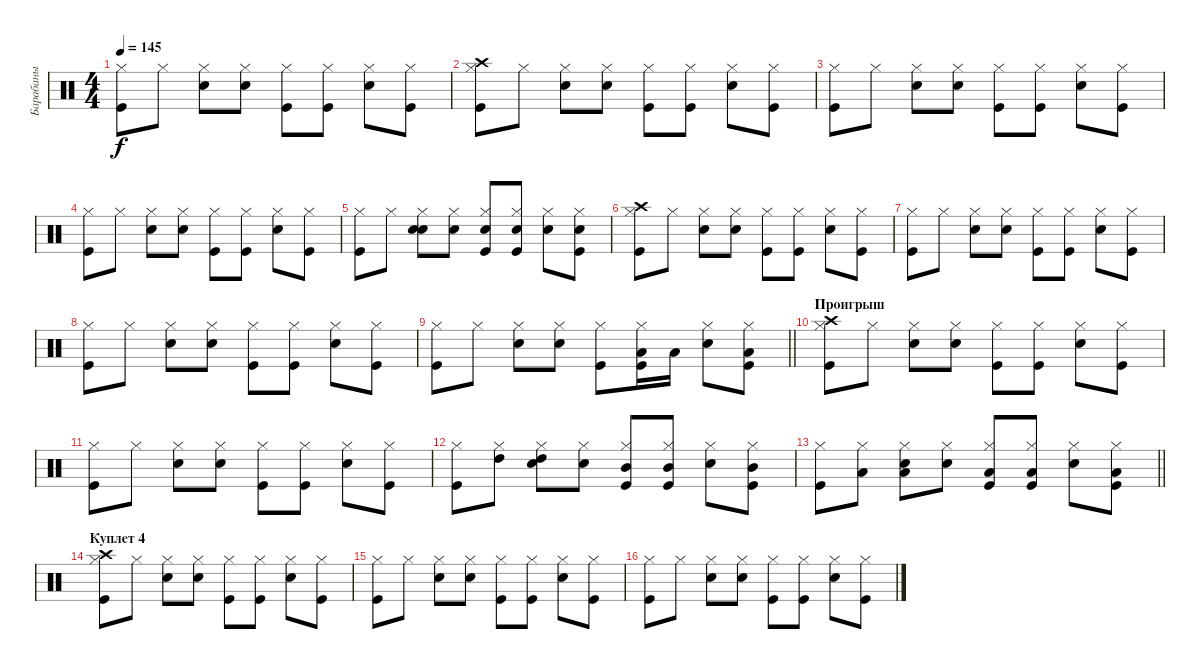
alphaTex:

\track ("Барабаны" "Барабаны") {instrument percussion}
\staff {score}
\articulation defaults
\ts (4 4)
\tempo 145
\clef neutral
\ks c
("Kick (hit)" "Hi-Hat (closed)").8{dy f} "Hi-Hat (closed)".8 ("Snare (hit) 2" "Hi-Hat (closed)").8 ("Snare (hit) 2" "Hi-Hat (closed)").8 ("Kick (hit)" "Hi-Hat (closed)").8 ("Kick (hit)" "Hi-Hat (closed)").8 ("Snare (hit) 2" "Hi-Hat (closed)").8 ("Kick (hit)" "Hi-Hat (closed)").8 |
("Kick (hit)" "Hi-Hat (closed)" "Crash high (hit)").8 "Hi-Hat (closed)".8 ("Snare (hit) 2" "Hi-Hat (closed)").8 ("Snare (hit) 2" "Hi-Hat (closed)").8 ("Kick (hit)" "Hi-Hat (closed)").8 ("Kick (hit)" "Hi-Hat (closed)").8 ("Snare (hit) 2" "Hi-Hat (closed)").8 ("Kick (hit)" "Hi-Hat (closed)").8 |
("Kick (hit)" "Hi-Hat (closed)").8 "Hi-Hat (closed)".8 ("Snare (hit) 2" "Hi-Hat (closed)").8 ("Snare (hit) 2" "Hi-Hat (closed)").8 ("Kick (hit)" "Hi-Hat (closed)").8 ("Kick (hit)" "Hi-Hat (closed)").8 ("Snare (hit) 2" "Hi-Hat (closed)").8 ("Kick (hit)" "Hi-Hat (closed)").8 |
("Kick (hit)" "Hi-Hat (closed)").8 "Hi-Hat (closed)".8 ("Snare (hit) 2" "Hi-Hat (closed)").8 ("Snare (hit) 2" "Hi-Hat (closed)").8 ("Kick (hit)" "Hi-Hat (closed)").8 ("Kick (hit)" "Hi-Hat (closed)").8 ("Snare (hit) 2" "Hi-Hat (closed)").8 ("Kick (hit)" "Hi-Hat (closed)").8 |
("Kick (hit)" "Hi-Hat (closed)").8 "Hi-Hat (closed)".8 ("Snare (hit) 2" "Hi-Hat (closed)" "Hand Clap (hit)").8 ("Snare (hit) 2" "Hi-Hat (closed)").8 ("Kick (hit)" "Hi-Hat (closed)" "Hand Clap (hit)").8 ("Kick (hit)" "Hi-Hat (closed)" "Hand Clap (hit)").8 ("Snare (hit) 2" "Hi-Hat (closed)").8 ("Kick (hit)" "Hi-Hat (closed)" "Hand Clap (hit)").8 |
("Kick (hit)" "Hi-Hat (closed)" "Crash high (hit)").8 "Hi-Hat (closed)".8 ("Snare (hit) 2" "Hi-Hat (closed)").8 ("Snare (hit) 2" "Hi-Hat (closed)").8 ("Kick (hit)" "Hi-Hat (closed)").8 ("Kick (hit)" "Hi-Hat (closed)").8 ("Snare (hit) 2" "Hi-Hat (closed)").8 ("Kick (hit)" "Hi-Hat (closed)").8 |
("Kick (hit)" "Hi-Hat (closed)").8 "Hi-Hat (closed)".8 ("Snare (hit) 2" "Hi-Hat (closed)").8 ("Snare (hit) 2" "Hi-Hat (closed)").8 ("Kick (hit)" "Hi-Hat (closed)").8 ("Kick (hit)" "Hi-Hat (closed)").8 ("Snare (hit) 2" "Hi-Hat (closed)").8 ("Kick (hit)" "Hi-Hat (closed)").8 |
("Kick (hit)" "Hi-Hat (closed)").8 "Hi-Hat (closed)".8 ("Snare (hit) 2" "Hi-Hat (closed)").8 ("Snare (hit) 2" "Hi-Hat (closed)").8 ("Kick (hit)" "Hi-Hat (closed)").8 ("Kick (hit)" "Hi-Hat (closed)").8 ("Snare (hit) 2" "Hi-Hat (closed)").8 ("Kick (hit)" "Hi-Hat (closed)").8 |
\barLineRight lightlight
("Kick (hit)" "Hi-Hat (closed)").8 "Hi-Hat (closed)".8 ("Snare (hit) 2" "Hi-Hat (closed)").8 ("Snare (hit) 2" "Hi-Hat (closed)").8 ("Kick (hit)" "Hi-Hat (closed)").8 ("Kick (hit)" "Hi-Hat (closed)" "Low Tom (hit)").16 "Low Floor Tom (hit)".16 ("Snare (hit) 2" "Hi-Hat (closed)").8 ("Kick (hit)" "Hi-Hat (closed)" "Low Floor Tom (hit)").8 |
\section ("" "Проигрыш")
("Kick (hit)" "Hi-Hat (closed)" "Crash high (hit)").8 "Hi-Hat (closed)".8 ("Snare (hit) 2" "Hi-Hat (closed)").8 ("Snare (hit) 2" "Hi-Hat (closed)").8 ("Kick (hit)" "Hi-Hat (closed)").8 ("Kick (hit)" "Hi-Hat (closed)").8 ("Snare (hit) 2" "Hi-Hat (closed)").8 ("Kick (hit)" "Hi-Hat (closed)").8 |
("Kick (hit)" "Hi-Hat (closed)").8 "Hi-Hat (closed)".8 ("Snare (hit) 2" "Hi-Hat (closed)").8 ("Snare (hit) 2" "Hi-Hat (closed)").8 ("Kick (hit)" "Hi-Hat (closed)").8 ("Kick (hit)" "Hi-Hat (closed)").8 ("Snare (hit) 2" "Hi-Hat (closed)").8 ("Kick (hit)" "Hi-Hat (closed)").8 |
("Kick (hit)" "Hi-Hat (closed)").8 ("Hi-Hat (closed)" "High Tom (hit)").8 ("Snare (hit) 2" "Hi-Hat (closed)" "High Tom (hit)").8 ("Snare (hit) 2" "Hi-Hat (closed)").8 ("Kick (hit)" "Hi-Hat (closed)" "Mid Tom (hit)").8 ("Kick (hit)" "Hi-Hat (closed)" "Mid Tom (hit)").8 ("Snare (hit) 2" "Hi-Hat (closed)").8 ("Kick (hit)" "Hi-Hat (closed)" "Mid Tom (hit)").8 |
\barLineRight lightlight
("Kick (hit)" "Hi-Hat (closed)").8 ("Hi-Hat (closed)" "Low Floor Tom (hit)").8 ("Snare (hit) 2" "Hi-Hat (closed)" "Low Floor Tom (hit)").8 ("Snare (hit) 2" "Hi-Hat (closed)").8 ("Kick (hit)" "Hi-Hat (closed)" "Low Floor Tom (hit)").8 ("Kick (hit)" "Hi-Hat (closed)" "Low Floor Tom (hit)").8 ("Snare (hit) 2" "Hi-Hat (closed)").8 ("Kick (hit)" "Hi-Hat (closed)" "Low Floor Tom (hit)").8 |
\section ("" "Куплет 4")
("Kick (hit)" "Hi-Hat (closed)" "Crash high (hit)").8 "Hi-Hat (closed)".8 ("Snare (hit) 2" "Hi-Hat (closed)").8 ("Snare (hit) 2" "Hi-Hat (closed)").8 ("Kick (hit)" "Hi-Hat (closed)").8 ("Kick (hit)" "Hi-Hat (closed)").8 ("Snare (hit) 2" "Hi-Hat (closed)").8 ("Kick (hit)" "Hi-Hat (closed)").8 |
("Kick (hit)" "Hi-Hat (closed)").8 "Hi-Hat (closed)".8 ("Snare (hit) 2" "Hi-Hat (closed)").8 ("Snare (hit) 2" "Hi-Hat (closed)").8 ("Kick (hit)" "Hi-Hat (closed)").8 ("Kick (hit)" "Hi-Hat (closed)").8 ("Snare (hit) 2" "Hi-Hat (closed)").8 ("Kick (hit)" "Hi-Hat (closed)").8 |
("Kick (hit)" "Hi-Hat (closed)").8 "Hi-Hat (closed)".8 ("Snare (hit) 2" "Hi-Hat (closed)").8 ("Snare (hit) 2" "Hi-Hat (closed)").8 ("Kick (hit)" "Hi-Hat (closed)").8 ("Kick (hit)" "Hi-Hat (closed)").8 ("Snare (hit) 2" "Hi-Hat (closed)").8 ("Kick (hit)" "Hi-Hat (closed)").8
